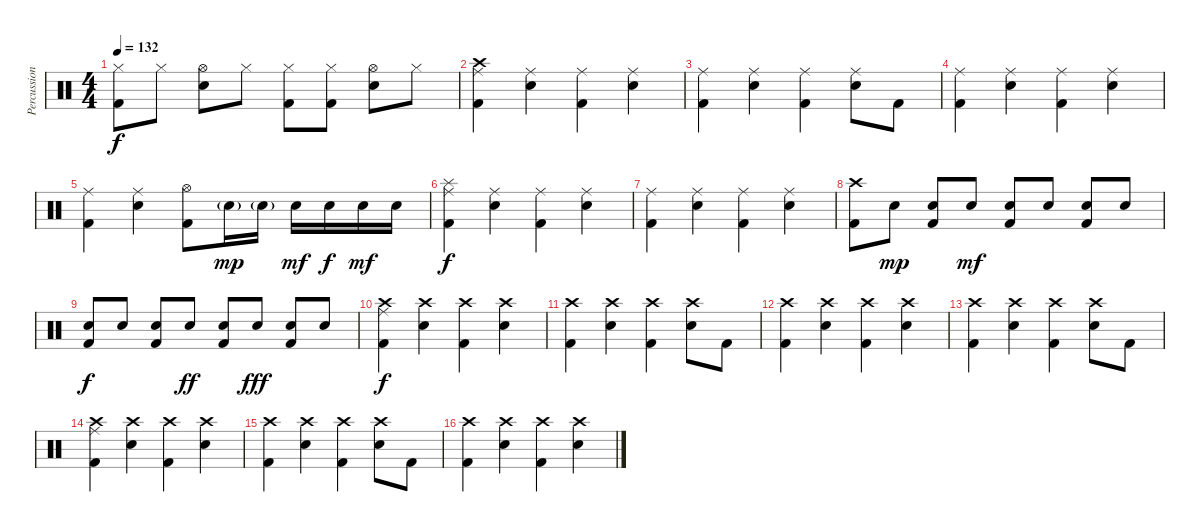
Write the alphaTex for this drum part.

\track ("Percussion" "Percussion") {instrument percussion}
\staff {score}
\articulation defaults
\ts (4 4)
\tempo 132
\clef neutral
\ks c
("Hi-Hat (closed)" "Kick (hit) 2").8{dy f} "Hi-Hat (closed)".8 ("Hi-Hat (open)" "Snare (hit) 2").8 "Hi-Hat (closed)".8 ("Hi-Hat (closed)" "Kick (hit) 2").8 ("Hi-Hat (closed)" "Kick (hit) 2").8 ("Hi-Hat (open)" "Snare (hit) 2").8 "Hi-Hat (closed)".8 |
("Crash high (hit)" "Ride (middle)" "Kick (hit) 2").4 ("Ride (middle)" "Snare (hit) 2").4 ("Ride (middle)" "Kick (hit) 2").4 ("Ride (middle)" "Snare (hit) 2").4 |
("Ride (middle)" "Kick (hit) 2").4 ("Ride (middle)" "Snare (hit) 2").4 ("Ride (middle)" "Kick (hit) 2").4 ("Ride (middle)" "Snare (hit) 2").8 "Kick (hit) 2".8 |
("Ride (middle)" "Kick (hit) 2").4 ("Ride (middle)" "Snare (hit) 2").4 ("Ride (middle)" "Kick (hit) 2").4 ("Ride (middle)" "Snare (hit) 2").4 |
("Ride (middle)" "Kick (hit) 2").4 ("Snare (hit) 2" "Ride (middle)").4 ("Hi-Hat (open)" "Kick (hit) 2").8 "Snare (hit) 2"{g}.16{dy mp} "Snare (hit) 2"{g}.16 "Snare (hit) 2".16{dy mf} "Snare (hit) 2".16{dy f} "Snare (hit) 2".16{dy mf} "Snare (hit) 2".16 |
("Ride (middle)" "Kick (hit) 2" "Splash (hit)").4{dy f} ("Ride (middle)" "Snare (hit) 2").4 ("Ride (middle)" "Kick (hit) 2").4 ("Ride (middle)" "Snare (hit) 2").4 |
("Ride (middle)" "Kick (hit) 2").4 ("Ride (middle)" "Snare (hit) 2").4 ("Ride (middle)" "Kick (hit) 2").4 ("Ride (middle)" "Snare (hit) 2").4 |
("Kick (hit) 2" "Crash high (hit)").8 "Snare (hit) 2".8{dy mp} ("Snare (hit) 2" "Kick (hit) 2").8 "Snare (hit) 2".8{dy mf} ("Snare (hit) 2" "Kick (hit) 2").8 "Snare (hit) 2".8 ("Snare (hit) 2" "Kick (hit) 2").8 "Snare (hit) 2".8 |
("Snare (hit) 2" "Kick (hit) 2").8{dy f} "Snare (hit) 2".8 ("Snare (hit) 2" "Kick (hit) 2").8 "Snare (hit) 2".8{dy ff} ("Snare (hit) 2" "Kick (hit) 2").8 "Snare (hit) 2".8{dy fff} ("Snare (hit) 2" "Kick (hit) 2").8 "Snare (hit) 2".8 |
("Crash high (hit)" "Ride (middle)" "Kick (hit) 2").4{dy f} ("Crash high (hit)" "Snare (hit) 2").4 ("Crash high (hit)" "Kick (hit) 2").4 ("Crash high (hit)" "Snare (hit) 2").4 |
("Crash high (hit)" "Kick (hit) 2").4 ("Crash high (hit)" "Snare (hit) 2").4 ("Crash high (hit)" "Kick (hit) 2").4 ("Crash high (hit)" "Snare (hit) 2").8 "Kick (hit) 2".8 |
("Crash high (hit)" "Kick (hit) 2").4 ("Crash high (hit)" "Snare (hit) 2").4 ("Crash high (hit)" "Kick (hit) 2").4 ("Crash high (hit)" "Snare (hit) 2").4 |
("Crash high (hit)" "Kick (hit) 2").4 ("Crash high (hit)" "Snare (hit) 2").4 ("Crash high (hit)" "Kick (hit) 2").4 ("Crash high (hit)" "Snare (hit) 2").8 "Kick (hit) 2".8 |
("Crash high (hit)" "Ride (middle)" "Kick (hit) 2").4 ("Crash high (hit)" "Snare (hit) 2").4 ("Crash high (hit)" "Kick (hit) 2").4 ("Crash high (hit)" "Snare (hit) 2").4 |
("Crash high (hit)" "Kick (hit) 2").4 ("Crash high (hit)" "Snare (hit) 2").4 ("Crash high (hit)" "Kick (hit) 2").4 ("Crash high (hit)" "Snare (hit) 2").8 "Kick (hit) 2".8 |
("Crash high (hit)" "Kick (hit) 2").4 ("Crash high (hit)" "Snare (hit) 2").4 ("Crash high (hit)" "Kick (hit) 2").4 ("Crash high (hit)" "Snare (hit) 2").4
